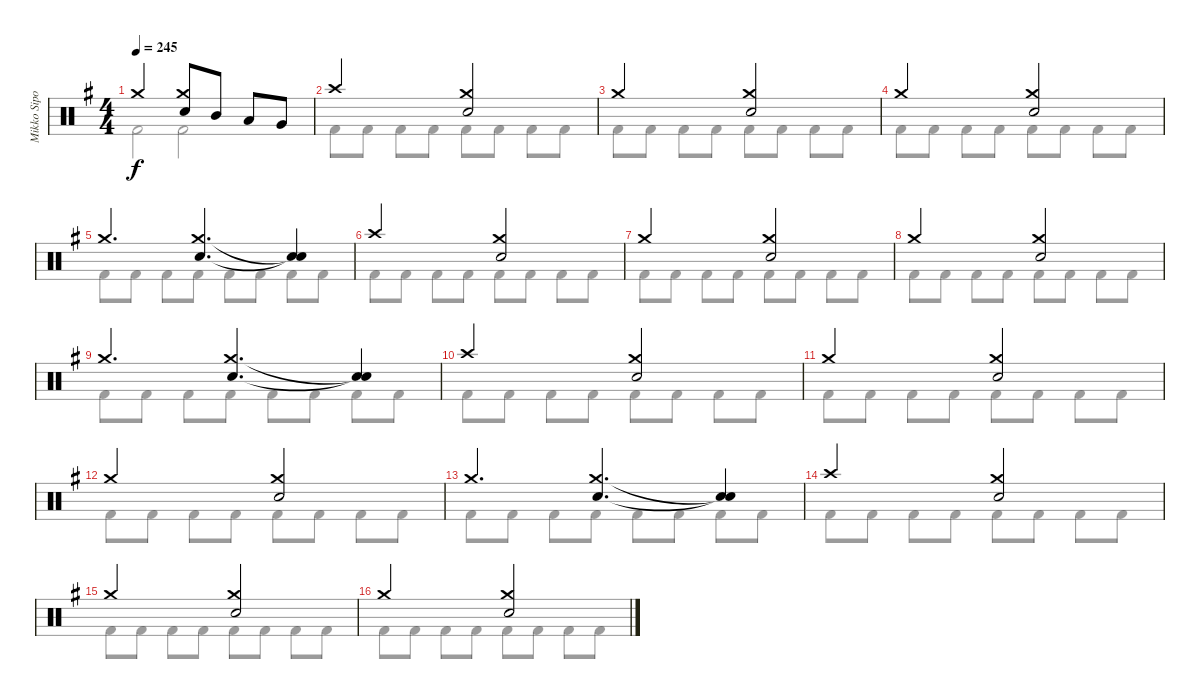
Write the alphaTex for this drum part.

\track ("Mikko Sipola (drums)" "Mikko Sipo") {instrument percussion}
\staff {score}
\articulation defaults
\voice
\ts (4 4)
\tempo 245
\clef neutral
\ks eminor "Crash medium (hit)".2{dy f}
("Crash medium (hit)" "Electric Snare (hit)").8 "Mid Tom (hit)".8 "Low Tom (hit)".8 "Very Low Tom (hit)".8 |
"Crash high (hit)".2 ("Crash medium (hit)" "Electric Snare (hit)").2 |
"Crash medium (hit)".2 ("Crash medium (hit)" "Electric Snare (hit)").2 |
"Crash medium (hit)".2 ("Crash medium (hit)" "Electric Snare (hit)").2 |
"Crash medium (hit)".4{d} ("Crash medium (hit)" "Electric Snare (hit)").4{d} ("Snare (hit)"{t} "Snare (hit)"{t}).4 |
"Crash high (hit)".2 ("Crash medium (hit)" "Electric Snare (hit)").2 |
"Crash medium (hit)".2 ("Crash medium (hit)" "Electric Snare (hit)").2 |
"Crash medium (hit)".2 ("Crash medium (hit)" "Electric Snare (hit)").2 |
"Crash medium (hit)".4{d} ("Crash medium (hit)" "Electric Snare (hit)").4{d} ("Snare (hit)"{t} "Snare (hit)"{t}).4 |
"Crash high (hit)".2 ("Crash medium (hit)" "Electric Snare (hit)").2 |
"Crash medium (hit)".2 ("Crash medium (hit)" "Electric Snare (hit)").2 |
"Crash medium (hit)".2 ("Crash medium (hit)" "Electric Snare (hit)").2 |
"Crash medium (hit)".4{d} ("Crash medium (hit)" "Electric Snare (hit)").4{d} ("Snare (hit)"{t} "Snare (hit)"{t}).4 |
"Crash high (hit)".2 ("Crash medium (hit)" "Electric Snare (hit)").2 |
"Crash medium (hit)".2 ("Crash medium (hit)" "Electric Snare (hit)").2 |
"Crash medium (hit)".2 ("Crash medium (hit)" "Electric Snare (hit)").2
\voice
\clef neutral
\ottava regular
\simile none
\ks eminor "Kick (hit) 2".2{dy f} "Kick (hit) 2".2
|
"Kick (hit) 2".8 "Kick (hit) 2".8 "Kick (hit) 2".8 "Kick (hit) 2".8 "Kick (hit) 2".8 "Kick (hit) 2".8 "Kick (hit) 2".8 "Kick (hit) 2".8 |
"Kick (hit) 2".8 "Kick (hit) 2".8 "Kick (hit) 2".8 "Kick (hit) 2".8 "Kick (hit) 2".8 "Kick (hit) 2".8 "Kick (hit) 2".8 "Kick (hit) 2".8 |
"Kick (hit) 2".8 "Kick (hit) 2".8 "Kick (hit) 2".8 "Kick (hit) 2".8 "Kick (hit) 2".8 "Kick (hit) 2".8 "Kick (hit) 2".8 "Kick (hit) 2".8 |
"Kick (hit) 2".8 "Kick (hit) 2".8 "Kick (hit) 2".8 "Kick (hit) 2".8 "Kick (hit) 2".8 "Kick (hit) 2".8 "Kick (hit) 2".8 "Kick (hit) 2".8 |
"Kick (hit) 2".8 "Kick (hit) 2".8 "Kick (hit) 2".8 "Kick (hit) 2".8 "Kick (hit) 2".8 "Kick (hit) 2".8 "Kick (hit) 2".8 "Kick (hit) 2".8 |
"Kick (hit) 2".8 "Kick (hit) 2".8 "Kick (hit) 2".8 "Kick (hit) 2".8 "Kick (hit) 2".8 "Kick (hit) 2".8 "Kick (hit) 2".8 "Kick (hit) 2".8 |
"Kick (hit) 2".8 "Kick (hit) 2".8 "Kick (hit) 2".8 "Kick (hit) 2".8 "Kick (hit) 2".8 "Kick (hit) 2".8 "Kick (hit) 2".8 "Kick (hit) 2".8 |
"Kick (hit) 2".8 "Kick (hit) 2".8 "Kick (hit) 2".8 "Kick (hit) 2".8 "Kick (hit) 2".8 "Kick (hit) 2".8 "Kick (hit) 2".8 "Kick (hit) 2".8 |
"Kick (hit) 2".8 "Kick (hit) 2".8 "Kick (hit) 2".8 "Kick (hit) 2".8 "Kick (hit) 2".8 "Kick (hit) 2".8 "Kick (hit) 2".8 "Kick (hit) 2".8 |
"Kick (hit) 2".8 "Kick (hit) 2".8 "Kick (hit) 2".8 "Kick (hit) 2".8 "Kick (hit) 2".8 "Kick (hit) 2".8 "Kick (hit) 2".8 "Kick (hit) 2".8 |
"Kick (hit) 2".8 "Kick (hit) 2".8 "Kick (hit) 2".8 "Kick (hit) 2".8 "Kick (hit) 2".8 "Kick (hit) 2".8 "Kick (hit) 2".8 "Kick (hit) 2".8 |
"Kick (hit) 2".8 "Kick (hit) 2".8 "Kick (hit) 2".8 "Kick (hit) 2".8 "Kick (hit) 2".8 "Kick (hit) 2".8 "Kick (hit) 2".8 "Kick (hit) 2".8 |
"Kick (hit) 2".8 "Kick (hit) 2".8 "Kick (hit) 2".8 "Kick (hit) 2".8 "Kick (hit) 2".8 "Kick (hit) 2".8 "Kick (hit) 2".8 "Kick (hit) 2".8 |
"Kick (hit) 2".8 "Kick (hit) 2".8 "Kick (hit) 2".8 "Kick (hit) 2".8 "Kick (hit) 2".8 "Kick (hit) 2".8 "Kick (hit) 2".8 "Kick (hit) 2".8 |
"Kick (hit) 2".8 "Kick (hit) 2".8 "Kick (hit) 2".8 "Kick (hit) 2".8 "Kick (hit) 2".8 "Kick (hit) 2".8 "Kick (hit) 2".8 "Kick (hit) 2".8
